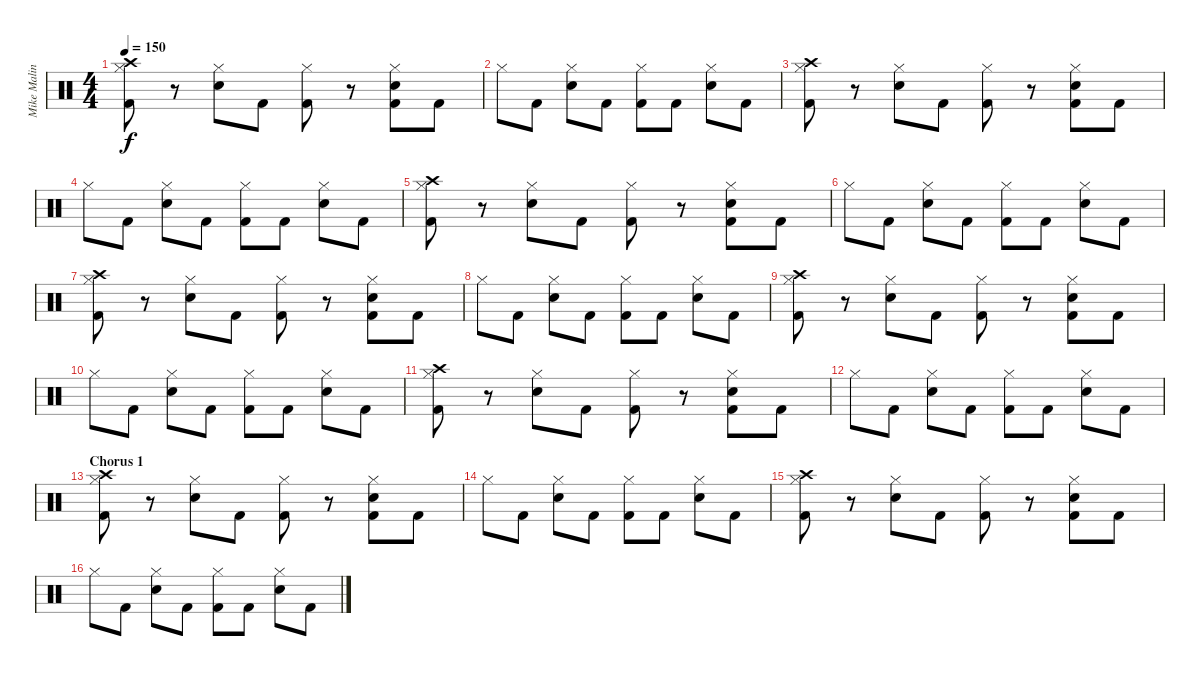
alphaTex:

\track ("Mike Malinin - Drums" "Mike Malin") {instrument percussion}
\staff {score}
\articulation defaults
\ts (4 4)
\tempo 150
\clef neutral
\ks c
("Crash high (hit)" "Hi-Hat (closed)" "Kick (hit) 2").8{dy f} r.8 ("Hi-Hat (closed)" "Snare (hit) 2").8 "Kick (hit) 2".8 ("Hi-Hat (closed)" "Kick (hit) 2").8 r.8 ("Hi-Hat (closed)" "Snare (hit) 2" "Kick (hit) 2").8 "Kick (hit) 2".8 |
"Hi-Hat (closed)".8 "Kick (hit) 2".8 ("Hi-Hat (closed)" "Snare (hit) 2").8 "Kick (hit) 2".8 ("Hi-Hat (closed)" "Kick (hit) 2").8 "Kick (hit) 2".8 ("Hi-Hat (closed)" "Snare (hit) 2").8 "Kick (hit) 2".8 |
("Crash high (hit)" "Hi-Hat (closed)" "Kick (hit) 2").8 r.8 ("Hi-Hat (closed)" "Snare (hit) 2").8 "Kick (hit) 2".8 ("Hi-Hat (closed)" "Kick (hit) 2").8 r.8 ("Hi-Hat (closed)" "Snare (hit) 2" "Kick (hit) 2").8 "Kick (hit) 2".8 |
"Hi-Hat (closed)".8 "Kick (hit) 2".8 ("Hi-Hat (closed)" "Snare (hit) 2").8 "Kick (hit) 2".8 ("Hi-Hat (closed)" "Kick (hit) 2").8 "Kick (hit) 2".8 ("Hi-Hat (closed)" "Snare (hit) 2").8 "Kick (hit) 2".8 |
("Crash high (hit)" "Hi-Hat (closed)" "Kick (hit) 2").8 r.8 ("Hi-Hat (closed)" "Snare (hit) 2").8 "Kick (hit) 2".8 ("Hi-Hat (closed)" "Kick (hit) 2").8 r.8 ("Hi-Hat (closed)" "Snare (hit) 2" "Kick (hit) 2").8 "Kick (hit) 2".8 |
"Hi-Hat (closed)".8 "Kick (hit) 2".8 ("Hi-Hat (closed)" "Snare (hit) 2").8 "Kick (hit) 2".8 ("Hi-Hat (closed)" "Kick (hit) 2").8 "Kick (hit) 2".8 ("Hi-Hat (closed)" "Snare (hit) 2").8 "Kick (hit) 2".8 |
("Crash high (hit)" "Hi-Hat (closed)" "Kick (hit) 2").8 r.8 ("Hi-Hat (closed)" "Snare (hit) 2").8 "Kick (hit) 2".8 ("Hi-Hat (closed)" "Kick (hit) 2").8 r.8 ("Hi-Hat (closed)" "Snare (hit) 2" "Kick (hit) 2").8 "Kick (hit) 2".8 |
"Hi-Hat (closed)".8 "Kick (hit) 2".8 ("Hi-Hat (closed)" "Snare (hit) 2").8 "Kick (hit) 2".8 ("Hi-Hat (closed)" "Kick (hit) 2").8 "Kick (hit) 2".8 ("Hi-Hat (closed)" "Snare (hit) 2").8 "Kick (hit) 2".8 |
("Crash high (hit)" "Hi-Hat (closed)" "Kick (hit) 2").8 r.8 ("Hi-Hat (closed)" "Snare (hit) 2").8 "Kick (hit) 2".8 ("Hi-Hat (closed)" "Kick (hit) 2").8 r.8 ("Hi-Hat (closed)" "Snare (hit) 2" "Kick (hit) 2").8 "Kick (hit) 2".8 |
"Hi-Hat (closed)".8 "Kick (hit) 2".8 ("Hi-Hat (closed)" "Snare (hit) 2").8 "Kick (hit) 2".8 ("Hi-Hat (closed)" "Kick (hit) 2").8 "Kick (hit) 2".8 ("Hi-Hat (closed)" "Snare (hit) 2").8 "Kick (hit) 2".8 |
("Crash high (hit)" "Hi-Hat (closed)" "Kick (hit) 2").8 r.8 ("Hi-Hat (closed)" "Snare (hit) 2").8 "Kick (hit) 2".8 ("Hi-Hat (closed)" "Kick (hit) 2").8 r.8 ("Hi-Hat (closed)" "Snare (hit) 2" "Kick (hit) 2").8 "Kick (hit) 2".8 |
"Hi-Hat (closed)".8 "Kick (hit) 2".8 ("Hi-Hat (closed)" "Snare (hit) 2").8 "Kick (hit) 2".8 ("Hi-Hat (closed)" "Kick (hit) 2").8 "Kick (hit) 2".8 ("Hi-Hat (closed)" "Snare (hit) 2").8 "Kick (hit) 2".8 |
\section ("" "Chorus 1")
("Crash high (hit)" "Hi-Hat (closed)" "Kick (hit) 2").8 r.8 ("Hi-Hat (closed)" "Snare (hit) 2").8 "Kick (hit) 2".8 ("Hi-Hat (closed)" "Kick (hit) 2").8 r.8 ("Hi-Hat (closed)" "Snare (hit) 2" "Kick (hit) 2").8 "Kick (hit) 2".8 |
"Hi-Hat (closed)".8 "Kick (hit) 2".8 ("Hi-Hat (closed)" "Snare (hit) 2").8 "Kick (hit) 2".8 ("Hi-Hat (closed)" "Kick (hit) 2").8 "Kick (hit) 2".8 ("Hi-Hat (closed)" "Snare (hit) 2").8 "Kick (hit) 2".8 |
("Crash high (hit)" "Hi-Hat (closed)" "Kick (hit) 2").8 r.8 ("Hi-Hat (closed)" "Snare (hit) 2").8 "Kick (hit) 2".8 ("Hi-Hat (closed)" "Kick (hit) 2").8 r.8 ("Hi-Hat (closed)" "Snare (hit) 2" "Kick (hit) 2").8 "Kick (hit) 2".8 |
"Hi-Hat (closed)".8 "Kick (hit) 2".8 ("Hi-Hat (closed)" "Snare (hit) 2").8 "Kick (hit) 2".8 ("Hi-Hat (closed)" "Kick (hit) 2").8 "Kick (hit) 2".8 ("Hi-Hat (closed)" "Snare (hit) 2").8 "Kick (hit) 2".8
